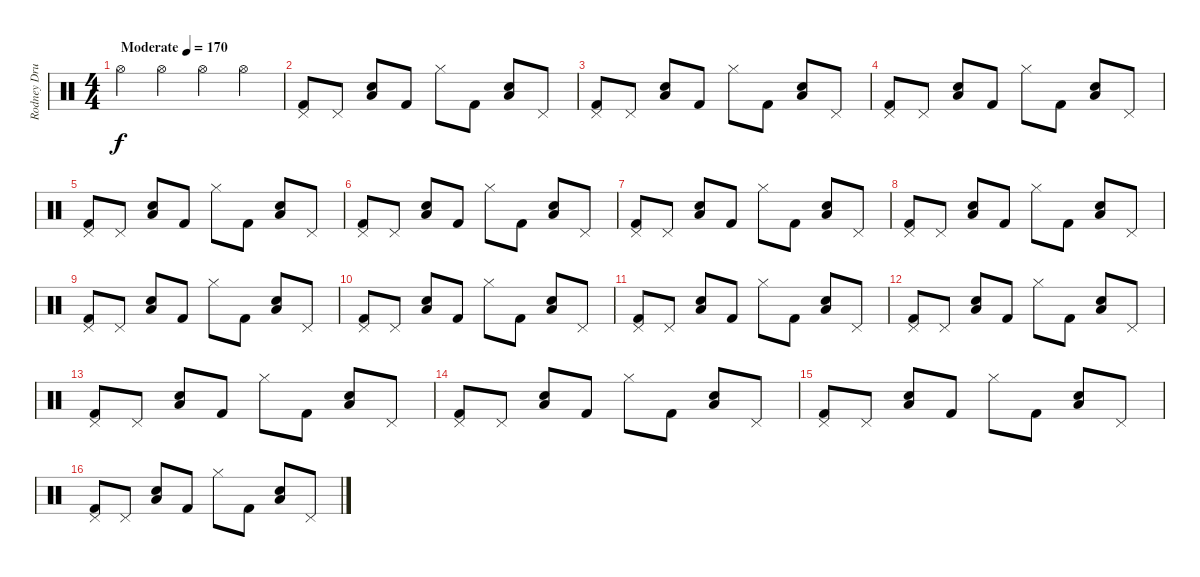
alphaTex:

\track ("Rodney Drums" "Rodney Dru") {instrument percussion}
\staff {score}
\articulation defaults
\ts (4 4)
\tempo (170 "Moderate")
\clef neutral
\ks c "Hi-Hat (open)".4{dy f} "Hi-Hat (open)".4 "Hi-Hat (open)".4 "Hi-Hat (open)".4
|
("Pedal Hi-Hat (hit)" "Kick (hit) 2").8 "Pedal Hi-Hat (hit)".8 ("Electric Snare (hit)" "Low Tom (hit)").8 "Kick (hit) 2".8 "Hi-Hat (closed)".8 "Kick (hit) 2".8 ("Electric Snare (hit)" "Low Tom (hit)").8 "Pedal Hi-Hat (hit)".8 |
("Pedal Hi-Hat (hit)" "Kick (hit) 2").8 "Pedal Hi-Hat (hit)".8 ("Electric Snare (hit)" "Low Tom (hit)").8 "Kick (hit) 2".8 "Hi-Hat (closed)".8 "Kick (hit) 2".8 ("Electric Snare (hit)" "Low Tom (hit)").8 "Pedal Hi-Hat (hit)".8 |
("Pedal Hi-Hat (hit)" "Kick (hit) 2").8 "Pedal Hi-Hat (hit)".8 ("Electric Snare (hit)" "Low Tom (hit)").8 "Kick (hit) 2".8 "Hi-Hat (closed)".8 "Kick (hit) 2".8 ("Electric Snare (hit)" "Low Tom (hit)").8 "Pedal Hi-Hat (hit)".8 |
("Pedal Hi-Hat (hit)" "Kick (hit) 2").8 "Pedal Hi-Hat (hit)".8 ("Electric Snare (hit)" "Low Tom (hit)").8 "Kick (hit) 2".8 "Hi-Hat (closed)".8 "Kick (hit) 2".8 ("Electric Snare (hit)" "Low Tom (hit)").8 "Pedal Hi-Hat (hit)".8 |
("Pedal Hi-Hat (hit)" "Kick (hit) 2").8 "Pedal Hi-Hat (hit)".8 ("Electric Snare (hit)" "Low Tom (hit)").8 "Kick (hit) 2".8 "Hi-Hat (closed)".8 "Kick (hit) 2".8 ("Electric Snare (hit)" "Low Tom (hit)").8 "Pedal Hi-Hat (hit)".8 |
("Pedal Hi-Hat (hit)" "Kick (hit) 2").8 "Pedal Hi-Hat (hit)".8 ("Electric Snare (hit)" "Low Tom (hit)").8 "Kick (hit) 2".8 "Hi-Hat (closed)".8 "Kick (hit) 2".8 ("Electric Snare (hit)" "Low Tom (hit)").8 "Pedal Hi-Hat (hit)".8 |
("Pedal Hi-Hat (hit)" "Kick (hit) 2").8 "Pedal Hi-Hat (hit)".8 ("Electric Snare (hit)" "Low Tom (hit)").8 "Kick (hit) 2".8 "Hi-Hat (closed)".8 "Kick (hit) 2".8 ("Electric Snare (hit)" "Low Tom (hit)").8 "Pedal Hi-Hat (hit)".8 |
("Pedal Hi-Hat (hit)" "Kick (hit) 2").8 "Pedal Hi-Hat (hit)".8 ("Electric Snare (hit)" "Low Tom (hit)").8 "Kick (hit) 2".8 "Hi-Hat (closed)".8 "Kick (hit) 2".8 ("Electric Snare (hit)" "Low Tom (hit)").8 "Pedal Hi-Hat (hit)".8 |
("Pedal Hi-Hat (hit)" "Kick (hit) 2").8 "Pedal Hi-Hat (hit)".8 ("Electric Snare (hit)" "Low Tom (hit)").8 "Kick (hit) 2".8 "Hi-Hat (closed)".8 "Kick (hit) 2".8 ("Electric Snare (hit)" "Low Tom (hit)").8 "Pedal Hi-Hat (hit)".8 |
("Pedal Hi-Hat (hit)" "Kick (hit) 2").8 "Pedal Hi-Hat (hit)".8 ("Electric Snare (hit)" "Low Tom (hit)").8 "Kick (hit) 2".8 "Hi-Hat (closed)".8 "Kick (hit) 2".8 ("Electric Snare (hit)" "Low Tom (hit)").8 "Pedal Hi-Hat (hit)".8 |
("Pedal Hi-Hat (hit)" "Kick (hit) 2").8 "Pedal Hi-Hat (hit)".8 ("Electric Snare (hit)" "Low Tom (hit)").8 "Kick (hit) 2".8 "Hi-Hat (closed)".8 "Kick (hit) 2".8 ("Electric Snare (hit)" "Low Tom (hit)").8 "Pedal Hi-Hat (hit)".8 |
("Pedal Hi-Hat (hit)" "Kick (hit) 2").8 "Pedal Hi-Hat (hit)".8 ("Electric Snare (hit)" "Low Tom (hit)").8 "Kick (hit) 2".8 "Hi-Hat (closed)".8 "Kick (hit) 2".8 ("Electric Snare (hit)" "Low Tom (hit)").8 "Pedal Hi-Hat (hit)".8 |
("Pedal Hi-Hat (hit)" "Kick (hit) 2").8 "Pedal Hi-Hat (hit)".8 ("Electric Snare (hit)" "Low Tom (hit)").8 "Kick (hit) 2".8 "Hi-Hat (closed)".8 "Kick (hit) 2".8 ("Electric Snare (hit)" "Low Tom (hit)").8 "Pedal Hi-Hat (hit)".8 |
("Pedal Hi-Hat (hit)" "Kick (hit) 2").8 "Pedal Hi-Hat (hit)".8 ("Electric Snare (hit)" "Low Tom (hit)").8 "Kick (hit) 2".8 "Hi-Hat (closed)".8 "Kick (hit) 2".8 ("Electric Snare (hit)" "Low Tom (hit)").8 "Pedal Hi-Hat (hit)".8 |
("Pedal Hi-Hat (hit)" "Kick (hit) 2").8 "Pedal Hi-Hat (hit)".8 ("Electric Snare (hit)" "Low Tom (hit)").8 "Kick (hit) 2".8 "Hi-Hat (closed)".8 "Kick (hit) 2".8 ("Electric Snare (hit)" "Low Tom (hit)").8 "Pedal Hi-Hat (hit)".8
